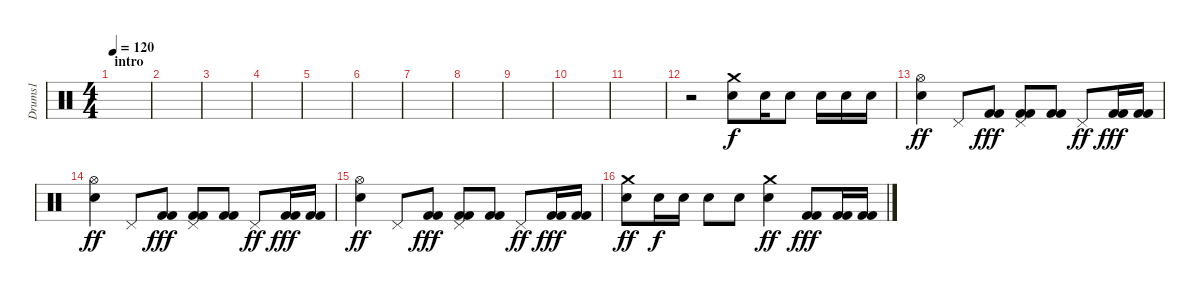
\track ("Drums1" "Drums1") {instrument percussion}
\staff {score}
\articulation defaults
\ts (4 4)
\section ("" "intro")
\tempo 120
\clef neutral
\ks c
|
|
|
|
|
|
|
|
|
|
|
r.2 ("Electric Snare (hit)" "Crash medium (hit)").8 "Electric Snare (hit)".16{dy f} "Electric Snare (hit)".8 "Electric Snare (hit)".16 "Electric Snare (hit)".16 "Electric Snare (hit)".16 |
("Hi-Hat (open)" "Electric Snare (hit)").4{dy ff} "Pedal Hi-Hat (hit)".8 ("Kick (hit) 2" "Kick (hit) 2").8{dy fff} ("Pedal Hi-Hat (hit)" "Kick (hit) 2" "Kick (hit) 2").8 ("Kick (hit) 2" "Kick (hit) 2").8 "Pedal Hi-Hat (hit)".8{dy ff} ("Kick (hit) 2" "Kick (hit) 2").16{dy fff} ("Kick (hit) 2" "Kick (hit) 2").16 |
("Hi-Hat (open)" "Electric Snare (hit)").4{dy ff} "Pedal Hi-Hat (hit)".8 ("Kick (hit) 2" "Kick (hit) 2").8{dy fff} ("Pedal Hi-Hat (hit)" "Kick (hit) 2" "Kick (hit) 2").8 ("Kick (hit) 2" "Kick (hit) 2").8 "Pedal Hi-Hat (hit)".8{dy ff} ("Kick (hit) 2" "Kick (hit) 2").16{dy fff} ("Kick (hit) 2" "Kick (hit) 2").16 |
("Hi-Hat (open)" "Electric Snare (hit)").4{dy ff} "Pedal Hi-Hat (hit)".8 ("Kick (hit) 2" "Kick (hit) 2").8{dy fff} ("Pedal Hi-Hat (hit)" "Kick (hit) 2" "Kick (hit) 2").8 ("Kick (hit) 2" "Kick (hit) 2").8 "Pedal Hi-Hat (hit)".8{dy ff} ("Kick (hit) 2" "Kick (hit) 2").16{dy fff} ("Kick (hit) 2" "Kick (hit) 2").16 |
("Electric Snare (hit)" "Crash medium (hit)").8{dy ff} "Electric Snare (hit)".16{dy f} "Electric Snare (hit)".16 "Electric Snare (hit)".8 "Electric Snare (hit)".8 ("Electric Snare (hit)" "Crash medium (hit)").4{dy ff} ("Kick (hit) 2" "Kick (hit) 2").8{dy fff} ("Kick (hit) 2" "Kick (hit) 2").16 ("Kick (hit) 2" "Kick (hit) 2").16
